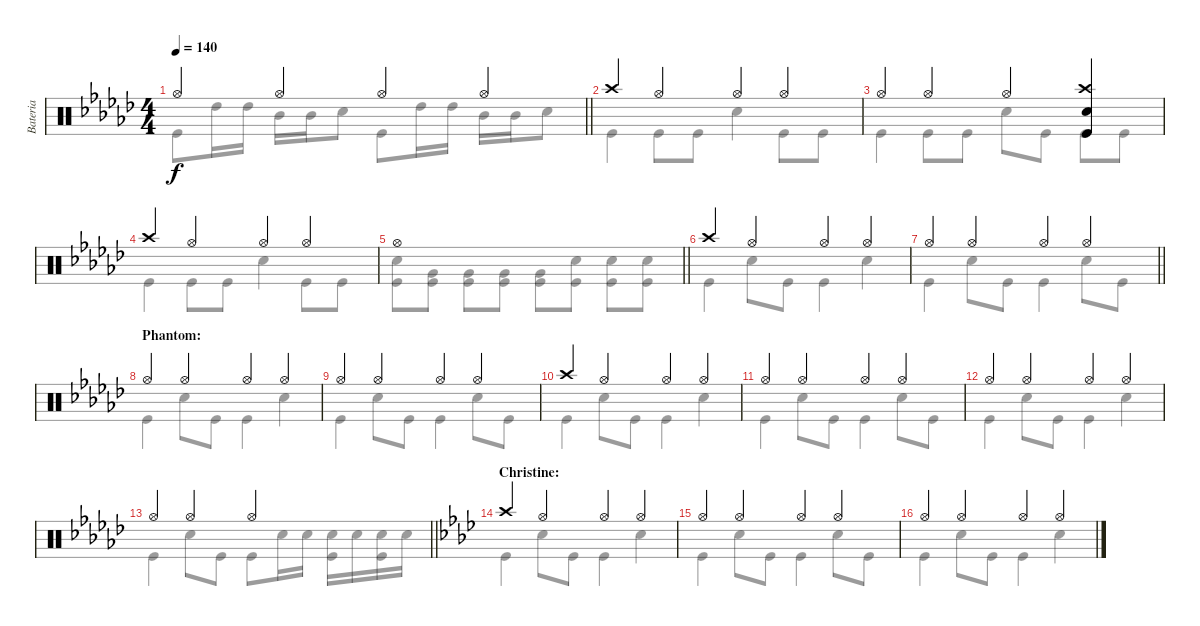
\track ("Bateria" "Bateria") {instrument percussion}
\staff {score}
\articulation defaults
\voice
\ts (4 4)
\tempo 140
\clef neutral
\barLineRight lightlight
\ks ebminor "Hi-Hat (open)".4{dy f} "Hi-Hat (open)".4 "Hi-Hat (open)".4 "Hi-Hat (open)".4
|
"Crash high (hit)".4 "Hi-Hat (open)".4 "Hi-Hat (open)".4 "Hi-Hat (open)".4 |
"Hi-Hat (open)".4 "Hi-Hat (open)".4 "Hi-Hat (open)".4 ("Crash high (hit)" "Snare (hit) 2" "Kick (hit)").4 |
"Crash high (hit)".4 "Hi-Hat (open)".4 "Hi-Hat (open)".4 "Hi-Hat (open)".4 |
\barLineRight lightlight "Hi-Hat (open)".1
|
"Crash high (hit)".4 "Hi-Hat (open)".4 "Hi-Hat (open)".4 "Hi-Hat (open)".4 |
\barLineRight lightlight "Hi-Hat (open)".4 "Hi-Hat (open)".4 "Hi-Hat (open)".4 "Hi-Hat (open)".4
|
\section ("" "Phantom:")
"Hi-Hat (open)".4 "Hi-Hat (open)".4 "Hi-Hat (open)".4 "Hi-Hat (open)".4 |
"Hi-Hat (open)".4 "Hi-Hat (open)".4 "Hi-Hat (open)".4 "Hi-Hat (open)".4 |
"Crash high (hit)".4 "Hi-Hat (open)".4 "Hi-Hat (open)".4 "Hi-Hat (open)".4 |
"Hi-Hat (open)".4 "Hi-Hat (open)".4 "Hi-Hat (open)".4 "Hi-Hat (open)".4 |
"Hi-Hat (open)".4 "Hi-Hat (open)".4 "Hi-Hat (open)".4 "Hi-Hat (open)".4 |
\barLineRight lightlight "Hi-Hat (open)".4 "Hi-Hat (open)".4 "Hi-Hat (open)".2
|
\section ("" "Christine:")
\ks fminor "Crash high (hit)".4 "Hi-Hat (open)".4 "Hi-Hat (open)".4 "Hi-Hat (open)".4
|
"Hi-Hat (open)".4 "Hi-Hat (open)".4 "Hi-Hat (open)".4 "Hi-Hat (open)".4 |
"Hi-Hat (open)".4 "Hi-Hat (open)".4 "Hi-Hat (open)".4 "Hi-Hat (open)".4
\voice
\clef neutral
\ottava regular
\simile none
\barLineRight lightlight
\ks ebminor "Kick (hit)".8{dy f} "High Tom (hit)".16 "High Tom (hit)".16 "Mid Tom (hit)".16 "Mid Tom (hit)".16 "Snare (hit) 2".8 "Kick (hit)".8 "High Tom (hit)".16 "High Tom (hit)".16 "Mid Tom (hit)".16 "Mid Tom (hit)".16 "Snare (hit) 2".8
|
"Kick (hit)".4 "Kick (hit)".8 "Kick (hit)".8 "Snare (hit) 2".4 "Kick (hit)".8 "Kick (hit)".8 |
"Kick (hit)".4 "Kick (hit)".8 "Kick (hit)".8 "Snare (hit) 2".8 "Kick (hit)".8 "Kick (hit)".8 "Kick (hit)".8 |
"Kick (hit)".4 "Kick (hit)".8 "Kick (hit)".8 "Snare (hit) 2".4 "Kick (hit)".8 "Kick (hit)".8 |
\barLineRight lightlight
("Snare (hit) 2" "Kick (hit)").8 ("Very Low Tom (hit)" "Kick (hit)").8 ("Very Low Tom (hit)" "Kick (hit)").8 ("Very Low Tom (hit)" "Kick (hit)").8 ("Very Low Tom (hit)" "Kick (hit)").8 ("Snare (hit) 2" "Kick (hit)").8 ("Snare (hit) 2" "Kick (hit)").8 ("Snare (hit) 2" "Kick (hit)").8 |
"Kick (hit)".4 "Snare (hit) 2".8 "Kick (hit)".8 "Kick (hit)".4 "Snare (hit) 2".4 |
\barLineRight lightlight "Kick (hit)".4 "Snare (hit) 2".8 "Kick (hit)".8 "Kick (hit)".4 "Snare (hit) 2".8 "Kick (hit)".8
|
"Kick (hit)".4 "Snare (hit) 2".8 "Kick (hit)".8 "Kick (hit)".4 "Snare (hit) 2".4 |
"Kick (hit)".4 "Snare (hit) 2".8 "Kick (hit)".8 "Kick (hit)".4 "Snare (hit) 2".8 "Kick (hit)".8 |
"Kick (hit)".4 "Snare (hit) 2".8 "Kick (hit)".8 "Kick (hit)".4 "Snare (hit) 2".4 |
"Kick (hit)".4 "Snare (hit) 2".8 "Kick (hit)".8 "Kick (hit)".4 "Snare (hit) 2".8 "Kick (hit)".8 |
"Kick (hit)".4 "Snare (hit) 2".8 "Kick (hit)".8 "Kick (hit)".4 "Snare (hit) 2".4 |
\barLineRight lightlight "Kick (hit)".4 "Snare (hit) 2".8 "Kick (hit)".8 "Kick (hit)".8 "Snare (hit) 2".16 "Snare (hit) 2".16
("Snare (hit) 2" "Kick (hit)").16 "Snare (hit) 2".16 ("Snare (hit) 2" "Kick (hit)").16 "Snare (hit) 2".16 |
\ks fminor "Kick (hit)".4 "Snare (hit) 2".8 "Kick (hit)".8 "Kick (hit)".4 "Snare (hit) 2".4
|
"Kick (hit)".4 "Snare (hit) 2".8 "Kick (hit)".8 "Kick (hit)".4 "Snare (hit) 2".8 "Kick (hit)".8 |
"Kick (hit)".4 "Snare (hit) 2".8 "Kick (hit)".8 "Kick (hit)".4 "Snare (hit) 2".4
